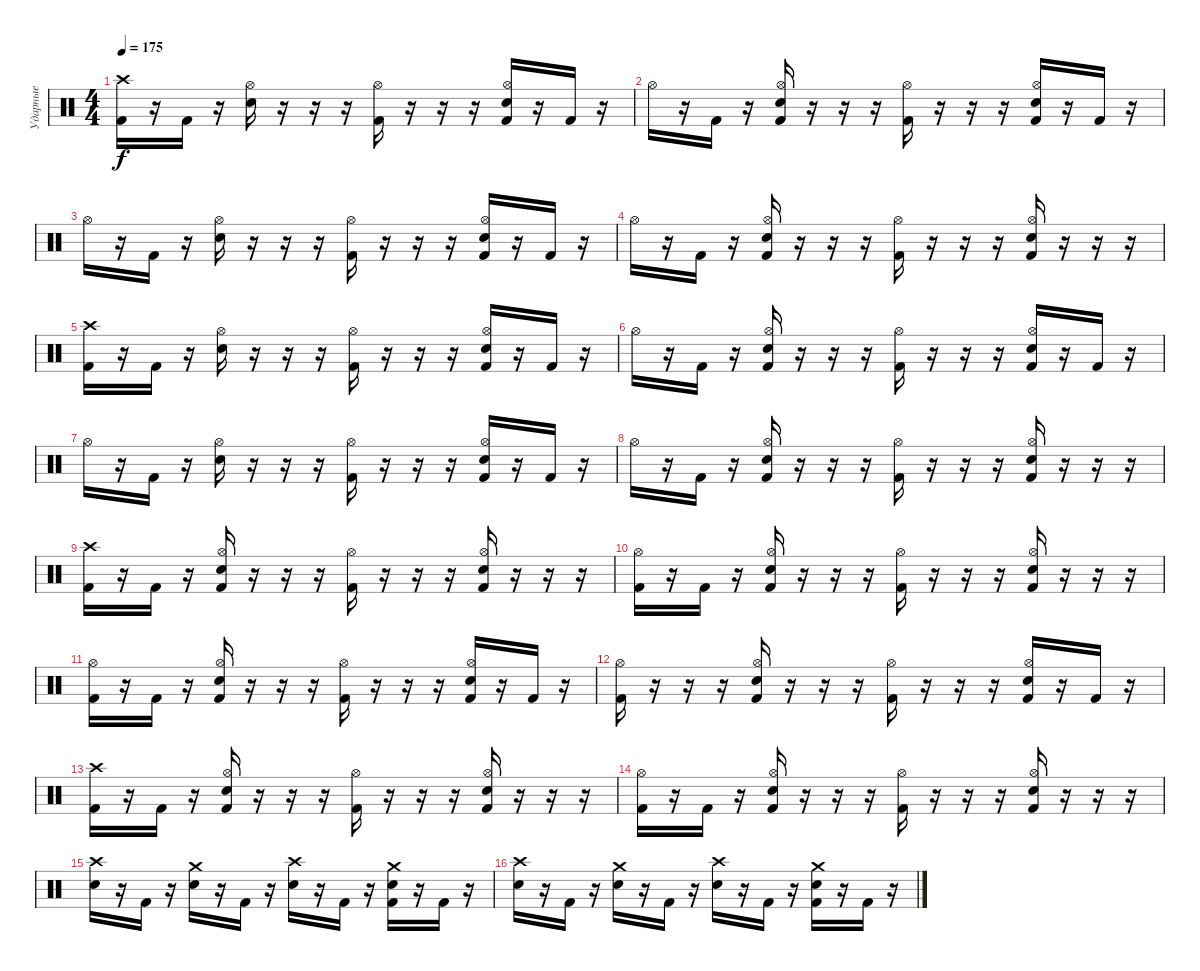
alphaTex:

\track ("Ударные" "Ударные") {instrument percussion}
\staff {score}
\articulation defaults
\ts (4 4)
\tempo 175
\clef neutral
\ks c
("Crash high (hit)" "Kick (hit) 2").16{dy f} r.16 "Kick (hit) 2".16 r.16 ("Hi-Hat (open)" "Electric Snare (hit)").16 r.16 r.16 r.16 ("Hi-Hat (open)" "Kick (hit) 2").16 r.16 r.16 r.16 ("Hi-Hat (open)" "Electric Snare (hit)" "Kick (hit) 2").16 r.16 "Kick (hit) 2".16 r.16 |
"Hi-Hat (open)".16 r.16 "Kick (hit) 2".16 r.16 ("Hi-Hat (open)" "Electric Snare (hit)" "Kick (hit) 2").16 r.16 r.16 r.16 ("Hi-Hat (open)" "Kick (hit) 2").16 r.16 r.16 r.16 ("Hi-Hat (open)" "Electric Snare (hit)" "Kick (hit) 2").16 r.16 "Kick (hit) 2".16 r.16 |
"Hi-Hat (open)".16 r.16 "Kick (hit) 2".16 r.16 ("Hi-Hat (open)" "Electric Snare (hit)").16 r.16 r.16 r.16 ("Hi-Hat (open)" "Kick (hit) 2").16 r.16 r.16 r.16 ("Hi-Hat (open)" "Electric Snare (hit)" "Kick (hit) 2").16 r.16 "Kick (hit) 2".16 r.16 |
"Hi-Hat (open)".16 r.16 "Kick (hit) 2".16 r.16 ("Hi-Hat (open)" "Electric Snare (hit)" "Kick (hit) 2").16 r.16 r.16 r.16 ("Hi-Hat (open)" "Kick (hit) 2").16 r.16 r.16 r.16 ("Hi-Hat (open)" "Electric Snare (hit)" "Kick (hit) 2").16 r.16 r.16 r.16 |
("Crash high (hit)" "Kick (hit) 2").16 r.16 "Kick (hit) 2".16 r.16 ("Hi-Hat (open)" "Electric Snare (hit)").16 r.16 r.16 r.16 ("Hi-Hat (open)" "Kick (hit) 2").16 r.16 r.16 r.16 ("Hi-Hat (open)" "Electric Snare (hit)" "Kick (hit) 2").16 r.16 "Kick (hit) 2".16 r.16 |
"Hi-Hat (open)".16 r.16 "Kick (hit) 2".16 r.16 ("Hi-Hat (open)" "Electric Snare (hit)" "Kick (hit) 2").16 r.16 r.16 r.16 ("Hi-Hat (open)" "Kick (hit) 2").16 r.16 r.16 r.16 ("Hi-Hat (open)" "Electric Snare (hit)" "Kick (hit) 2").16 r.16 "Kick (hit) 2".16 r.16 |
"Hi-Hat (open)".16 r.16 "Kick (hit) 2".16 r.16 ("Hi-Hat (open)" "Electric Snare (hit)").16 r.16 r.16 r.16 ("Hi-Hat (open)" "Kick (hit) 2").16 r.16 r.16 r.16 ("Hi-Hat (open)" "Electric Snare (hit)" "Kick (hit) 2").16 r.16 "Kick (hit) 2".16 r.16 |
"Hi-Hat (open)".16 r.16 "Kick (hit) 2".16 r.16 ("Hi-Hat (open)" "Electric Snare (hit)" "Kick (hit) 2").16 r.16 r.16 r.16 ("Hi-Hat (open)" "Kick (hit) 2").16 r.16 r.16 r.16 ("Hi-Hat (open)" "Electric Snare (hit)" "Kick (hit) 2").16 r.16 r.16 r.16 |
("Crash high (hit)" "Kick (hit) 2").16 r.16 "Kick (hit) 2".16 r.16 ("Hi-Hat (open)" "Electric Snare (hit)" "Kick (hit) 2").16 r.16 r.16 r.16 ("Hi-Hat (open)" "Kick (hit) 2").16 r.16 r.16 r.16 ("Hi-Hat (open)" "Electric Snare (hit)" "Kick (hit) 2").16 r.16 r.16 r.16 |
("Hi-Hat (open)" "Kick (hit) 2").16 r.16 "Kick (hit) 2".16 r.16 ("Hi-Hat (open)" "Electric Snare (hit)" "Kick (hit) 2").16 r.16 r.16 r.16 ("Hi-Hat (open)" "Kick (hit) 2").16 r.16 r.16 r.16 ("Hi-Hat (open)" "Electric Snare (hit)" "Kick (hit) 2").16 r.16 r.16 r.16 |
("Hi-Hat (open)" "Kick (hit) 2").16 r.16 "Kick (hit) 2".16 r.16 ("Hi-Hat (open)" "Electric Snare (hit)" "Kick (hit) 2").16 r.16 r.16 r.16 ("Hi-Hat (open)" "Kick (hit) 2").16 r.16 r.16 r.16 ("Hi-Hat (open)" "Electric Snare (hit)" "Kick (hit) 2").16 r.16 "Kick (hit) 2".16 r.16 |
("Hi-Hat (open)" "Kick (hit) 2").16 r.16 r.16 r.16 ("Hi-Hat (open)" "Electric Snare (hit)" "Kick (hit) 2").16 r.16 r.16 r.16 ("Hi-Hat (open)" "Kick (hit) 2").16 r.16 r.16 r.16 ("Hi-Hat (open)" "Electric Snare (hit)" "Kick (hit) 2").16 r.16 "Kick (hit) 2".16 r.16 |
("Crash high (hit)" "Kick (hit) 2").16 r.16 "Kick (hit) 2".16 r.16 ("Hi-Hat (open)" "Electric Snare (hit)" "Kick (hit) 2").16 r.16 r.16 r.16 ("Hi-Hat (open)" "Kick (hit) 2").16 r.16 r.16 r.16 ("Hi-Hat (open)" "Electric Snare (hit)" "Kick (hit) 2").16 r.16 r.16 r.16 |
("Hi-Hat (open)" "Kick (hit) 2").16 r.16 "Kick (hit) 2".16 r.16 ("Hi-Hat (open)" "Electric Snare (hit)" "Kick (hit) 2").16 r.16 r.16 r.16 ("Hi-Hat (open)" "Kick (hit) 2").16 r.16 r.16 r.16 ("Hi-Hat (open)" "Electric Snare (hit)" "Kick (hit) 2").16 r.16 r.16 r.16 |
("Crash high (hit)" "Electric Snare (hit)").16 r.16 "Kick (hit) 2".16 r.16 ("Crash medium (hit)" "Electric Snare (hit)").16 r.16 "Kick (hit) 2".16 r.16 ("Crash high (hit)" "Electric Snare (hit)").16 r.16 "Kick (hit) 2".16 r.16 ("Crash medium (hit)" "Electric Snare (hit)" "Kick (hit) 2").16 r.16 "Kick (hit) 2".16 r.16 |
("Crash high (hit)" "Electric Snare (hit)").16 r.16 "Kick (hit) 2".16 r.16 ("Crash medium (hit)" "Electric Snare (hit)").16 r.16 "Kick (hit) 2".16 r.16 ("Crash high (hit)" "Electric Snare (hit)").16 r.16 "Kick (hit) 2".16 r.16 ("Crash medium (hit)" "Electric Snare (hit)" "Kick (hit) 2").16 r.16 "Kick (hit) 2".16 r.16
